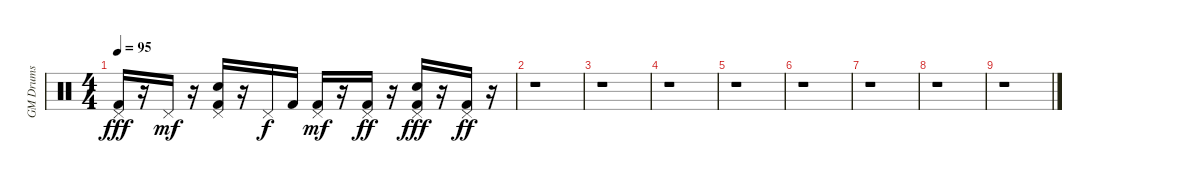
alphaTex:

\track ("GM Drums" "GM Drums") {instrument percussion}
\staff {score}
\articulation defaults
\ts (4 4)
\tempo 95
\clef neutral
\ks c
("Kick (hit) 2" "Pedal Hi-Hat (hit)").16{dy fff} r.16 "Pedal Hi-Hat (hit)".16{dy mf} r.16 ("Kick (hit) 2" "Hand Clap (hit)" "Pedal Hi-Hat (hit)").16 r.16 "Pedal Hi-Hat (hit)".16{dy f} "Kick (hit) 2".16 ("Kick (hit) 2" "Pedal Hi-Hat (hit)").16{dy mf} r.16 ("Kick (hit) 2" "Pedal Hi-Hat (hit)").16{dy ff} r.16 ("Kick (hit) 2" "Hand Clap (hit)" "Pedal Hi-Hat (hit)").16{dy fff} r.16 ("Kick (hit) 2" "Pedal Hi-Hat (hit)").16{dy ff} r.16 |
r.1 |
r.1 |
r.1 |
r.1 |
r.1 |
r.1 |
r.1 |
r.1
